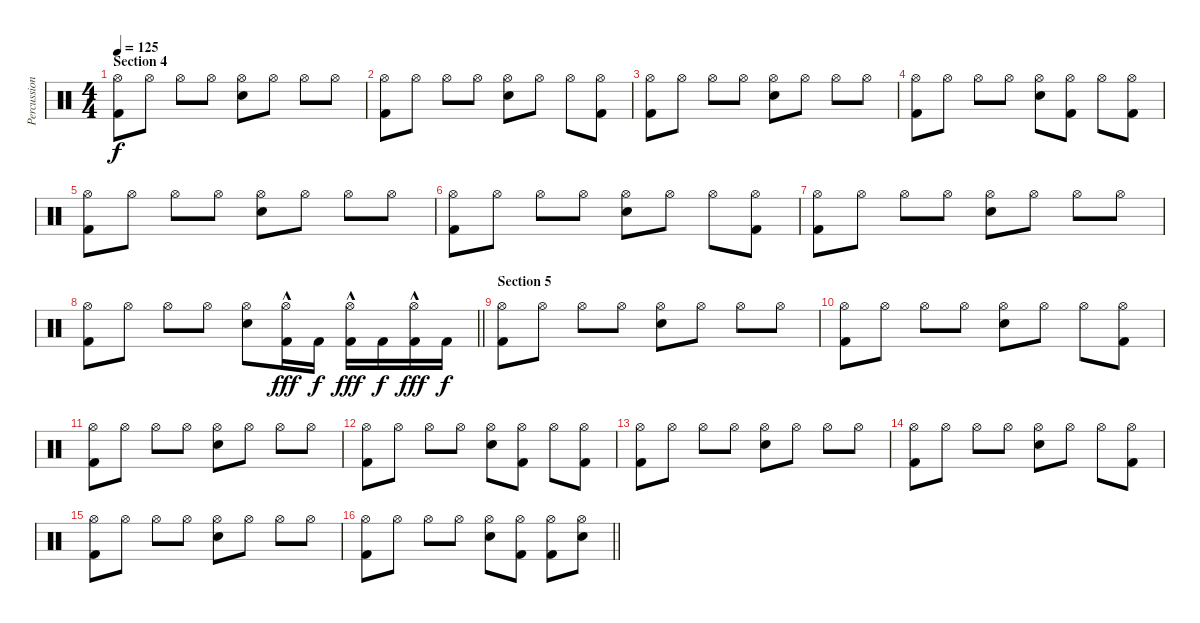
\track ("Percussions" "Percussion") {instrument percussion}
\staff {score}
\articulation defaults
\ts (4 4)
\section ("" "Section 4")
\tempo 125
\clef neutral
\ks c
("Hi-Hat (open)" "Kick (hit) 2").8{dy f} "Hi-Hat (open)".8 "Hi-Hat (open)".8 "Hi-Hat (open)".8 ("Hi-Hat (open)" "Electric Snare (hit)").8 "Hi-Hat (open)".8 "Hi-Hat (open)".8 "Hi-Hat (open)".8 |
("Hi-Hat (open)" "Kick (hit) 2").8 "Hi-Hat (open)".8 "Hi-Hat (open)".8 "Hi-Hat (open)".8 ("Hi-Hat (open)" "Electric Snare (hit)").8 "Hi-Hat (open)".8 "Hi-Hat (open)".8 ("Hi-Hat (open)" "Kick (hit) 2").8 |
("Hi-Hat (open)" "Kick (hit) 2").8 "Hi-Hat (open)".8 "Hi-Hat (open)".8 "Hi-Hat (open)".8 ("Hi-Hat (open)" "Electric Snare (hit)").8 "Hi-Hat (open)".8 "Hi-Hat (open)".8 "Hi-Hat (open)".8 |
("Hi-Hat (open)" "Kick (hit) 2").8 "Hi-Hat (open)".8 "Hi-Hat (open)".8 "Hi-Hat (open)".8 ("Hi-Hat (open)" "Electric Snare (hit)").8 ("Hi-Hat (open)" "Kick (hit) 2").8 "Hi-Hat (open)".8 ("Hi-Hat (open)" "Kick (hit) 2").8 |
("Hi-Hat (open)" "Kick (hit) 2").8 "Hi-Hat (open)".8 "Hi-Hat (open)".8 "Hi-Hat (open)".8 ("Hi-Hat (open)" "Electric Snare (hit)").8 "Hi-Hat (open)".8 "Hi-Hat (open)".8 "Hi-Hat (open)".8 |
("Hi-Hat (open)" "Kick (hit) 2").8 "Hi-Hat (open)".8 "Hi-Hat (open)".8 "Hi-Hat (open)".8 ("Hi-Hat (open)" "Electric Snare (hit)").8 "Hi-Hat (open)".8 "Hi-Hat (open)".8 ("Hi-Hat (open)" "Kick (hit) 2").8 |
("Hi-Hat (open)" "Kick (hit) 2").8 "Hi-Hat (open)".8 "Hi-Hat (open)".8 "Hi-Hat (open)".8 ("Hi-Hat (open)" "Electric Snare (hit)").8 "Hi-Hat (open)".8 "Hi-Hat (open)".8 "Hi-Hat (open)".8 |
\barLineRight lightlight
("Hi-Hat (open)" "Kick (hit) 2").8 "Hi-Hat (open)".8 "Hi-Hat (open)".8 "Hi-Hat (open)".8 ("Hi-Hat (open)" "Electric Snare (hit)").8 ("Hi-Hat (open)"{hac} "Kick (hit) 2").16{dy fff} "Kick (hit) 2".16{dy f} ("Hi-Hat (open)"{hac} "Kick (hit) 2").16{dy fff} "Kick (hit) 2".16{dy f} ("Hi-Hat (open)"{hac} "Kick (hit) 2").16{dy fff} "Kick (hit) 2".16{dy f} |
\section ("" "Section 5")
("Hi-Hat (open)" "Kick (hit) 2").8 "Hi-Hat (open)".8 "Hi-Hat (open)".8 "Hi-Hat (open)".8 ("Hi-Hat (open)" "Electric Snare (hit)").8 "Hi-Hat (open)".8 "Hi-Hat (open)".8 "Hi-Hat (open)".8 |
("Hi-Hat (open)" "Kick (hit) 2").8 "Hi-Hat (open)".8 "Hi-Hat (open)".8 "Hi-Hat (open)".8 ("Hi-Hat (open)" "Electric Snare (hit)").8 "Hi-Hat (open)".8 "Hi-Hat (open)".8 ("Hi-Hat (open)" "Kick (hit) 2").8 |
("Hi-Hat (open)" "Kick (hit) 2").8 "Hi-Hat (open)".8 "Hi-Hat (open)".8 "Hi-Hat (open)".8 ("Hi-Hat (open)" "Electric Snare (hit)").8 "Hi-Hat (open)".8 "Hi-Hat (open)".8 "Hi-Hat (open)".8 |
("Hi-Hat (open)" "Kick (hit) 2").8 "Hi-Hat (open)".8 "Hi-Hat (open)".8 "Hi-Hat (open)".8 ("Hi-Hat (open)" "Electric Snare (hit)").8 ("Hi-Hat (open)" "Kick (hit) 2").8 "Hi-Hat (open)".8 ("Hi-Hat (open)" "Kick (hit) 2").8 |
("Hi-Hat (open)" "Kick (hit) 2").8 "Hi-Hat (open)".8 "Hi-Hat (open)".8 "Hi-Hat (open)".8 ("Hi-Hat (open)" "Electric Snare (hit)").8 "Hi-Hat (open)".8 "Hi-Hat (open)".8 "Hi-Hat (open)".8 |
("Hi-Hat (open)" "Kick (hit) 2").8 "Hi-Hat (open)".8 "Hi-Hat (open)".8 "Hi-Hat (open)".8 ("Hi-Hat (open)" "Electric Snare (hit)").8 "Hi-Hat (open)".8 "Hi-Hat (open)".8 ("Hi-Hat (open)" "Kick (hit) 2").8 |
("Hi-Hat (open)" "Kick (hit) 2").8 "Hi-Hat (open)".8 "Hi-Hat (open)".8 "Hi-Hat (open)".8 ("Hi-Hat (open)" "Electric Snare (hit)").8 "Hi-Hat (open)".8 "Hi-Hat (open)".8 "Hi-Hat (open)".8 |
\barLineRight lightlight
("Hi-Hat (open)" "Kick (hit) 2").8 "Hi-Hat (open)".8 "Hi-Hat (open)".8 "Hi-Hat (open)".8 ("Hi-Hat (open)" "Electric Snare (hit)").8 ("Hi-Hat (open)" "Kick (hit) 2").8 ("Hi-Hat (open)" "Kick (hit) 2").8 ("Hi-Hat (open)" "Electric Snare (hit)").8
